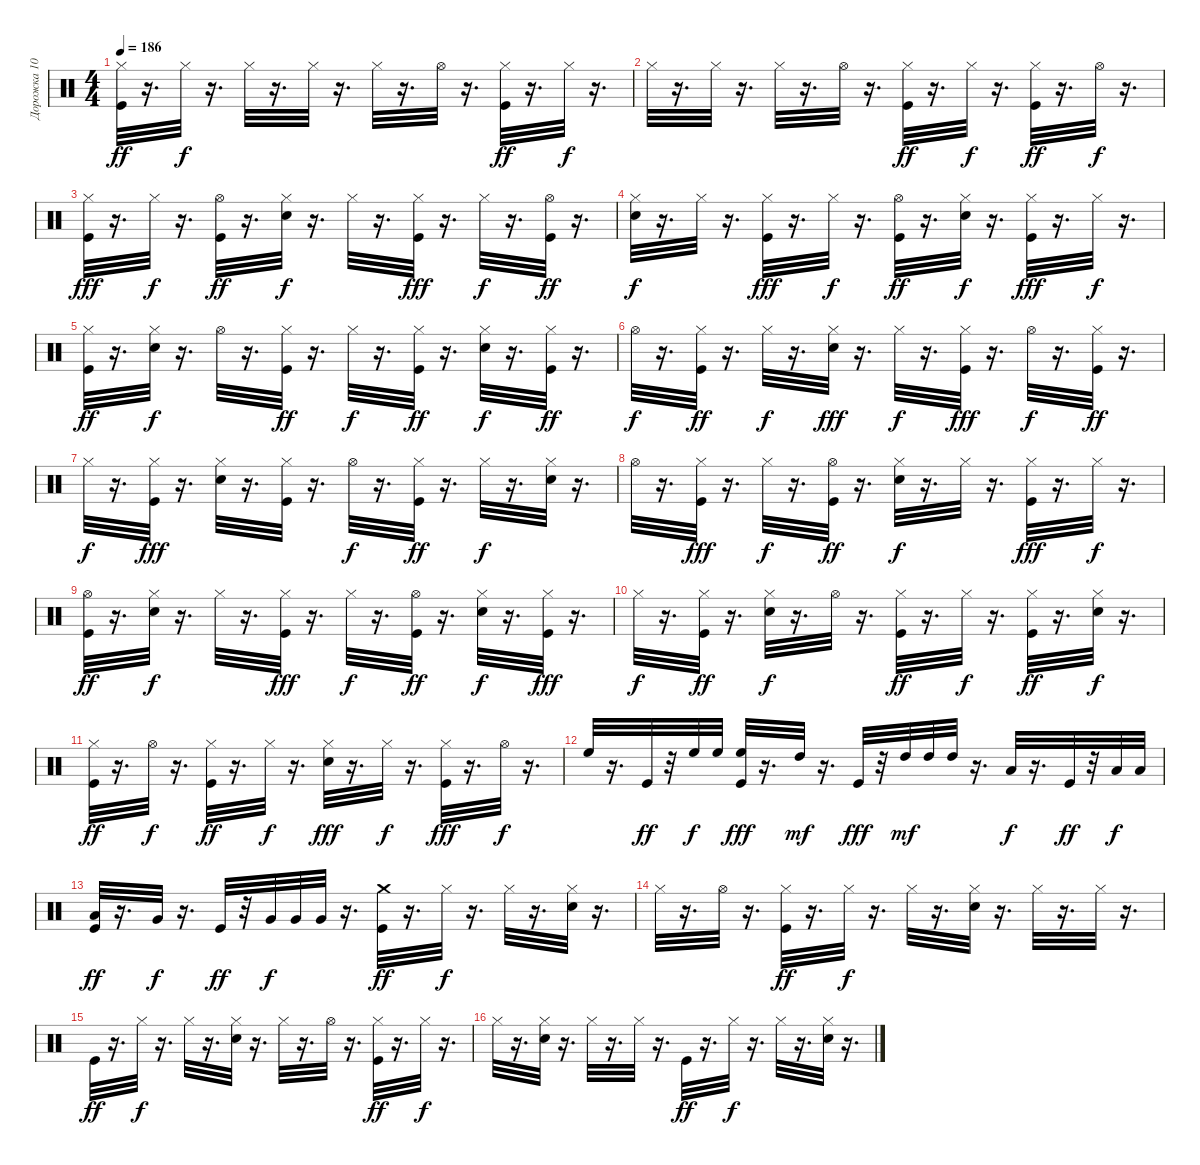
\track ("Дорожка 10" "Дорожка 10") {instrument percussion}
\staff {score}
\articulation defaults
\ts (4 4)
\tempo 186
\clef neutral
\ks c
("Hi-Hat (closed)" "Kick (hit)").32{dy ff} r.16{d} "Hi-Hat (closed)".32{dy f} r.16{d} "Hi-Hat (closed)".32 r.16{d} "Hi-Hat (closed)".32 r.16{d} "Hi-Hat (closed)".32 r.16{d} "Hi-Hat (open)".32 r.16{d} ("Hi-Hat (closed)" "Kick (hit)").32{dy ff} r.16{d} "Hi-Hat (closed)".32{dy f} r.16{d} |
"Hi-Hat (closed)".32 r.16{d} "Hi-Hat (closed)".32 r.16{d} "Hi-Hat (closed)".32 r.16{d} "Hi-Hat (open)".32 r.16{d} ("Hi-Hat (closed)" "Kick (hit)").32{dy ff} r.16{d} "Hi-Hat (closed)".32{dy f} r.16{d} ("Kick (hit)" "Hi-Hat (closed)").32{dy ff} r.16{d} "Hi-Hat (open)".32{dy f} r.16{d} |
("Hi-Hat (closed)" "Kick (hit)").32{dy fff} r.16{d} "Hi-Hat (closed)".32{dy f} r.16{d} ("Kick (hit)" "Hi-Hat (open)").32{dy ff} r.16{d} ("Hi-Hat (closed)" "Electric Snare (hit)").32{dy f} r.16{d} "Hi-Hat (closed)".32 r.16{d} ("Hi-Hat (closed)" "Kick (hit)").32{dy fff} r.16{d} "Hi-Hat (closed)".32{dy f} r.16{d} ("Hi-Hat (open)" "Kick (hit)").32{dy ff} r.16{d} |
("Hi-Hat (closed)" "Electric Snare (hit)").32{dy f} r.16{d} "Hi-Hat (closed)".32 r.16{d} ("Kick (hit)" "Hi-Hat (closed)").32{dy fff} r.16{d} "Hi-Hat (closed)".32{dy f} r.16{d} ("Kick (hit)" "Hi-Hat (open)").32{dy ff} r.16{d} ("Electric Snare (hit)" "Hi-Hat (closed)").32{dy f} r.16{d} ("Kick (hit)" "Hi-Hat (closed)").32{dy fff} r.16{d} "Hi-Hat (closed)".32{dy f} r.16{d} |
("Kick (hit)" "Hi-Hat (closed)").32{dy ff} r.16{d} ("Hi-Hat (closed)" "Electric Snare (hit)").32{dy f} r.16{d} "Hi-Hat (open)".32 r.16{d} ("Hi-Hat (closed)" "Kick (hit)").32{dy ff} r.16{d} "Hi-Hat (closed)".32{dy f} r.16{d} ("Kick (hit)" "Hi-Hat (closed)").32{dy ff} r.16{d} ("Hi-Hat (closed)" "Electric Snare (hit)").32{dy f} r.16{d} ("Kick (hit)" "Hi-Hat (closed)").32{dy ff} r.16{d} |
"Hi-Hat (open)".32{dy f} r.16{d} ("Kick (hit)" "Hi-Hat (closed)").32{dy ff} r.16{d} "Hi-Hat (closed)".32{dy f} r.16{d} ("Hi-Hat (closed)" "Electric Snare (hit)").32{dy fff} r.16{d} "Hi-Hat (closed)".32{dy f} r.16{d} ("Kick (hit)" "Hi-Hat (closed)").32{dy fff} r.16{d} "Hi-Hat (open)".32{dy f} r.16{d} ("Kick (hit)" "Hi-Hat (closed)").32{dy ff} r.16{d} |
"Hi-Hat (closed)".32{dy f} r.16{d} ("Hi-Hat (closed)" "Kick (hit)").32{dy fff} r.16{d} ("Electric Snare (hit)" "Hi-Hat (closed)").32 r.16{d} ("Kick (hit)" "Hi-Hat (closed)").32 r.16{d} "Hi-Hat (open)".32{dy f} r.16{d} ("Kick (hit)" "Hi-Hat (closed)").32{dy ff} r.16{d} "Hi-Hat (closed)".32{dy f} r.16{d} ("Electric Snare (hit)" "Hi-Hat (closed)").32 r.16{d} |
"Hi-Hat (open)".32 r.16{d} ("Hi-Hat (closed)" "Kick (hit)").32{dy fff} r.16{d} "Hi-Hat (closed)".32{dy f} r.16{d} ("Kick (hit)" "Hi-Hat (open)").32{dy ff} r.16{d} ("Hi-Hat (closed)" "Electric Snare (hit)").32{dy f} r.16{d} "Hi-Hat (closed)".32 r.16{d} ("Hi-Hat (closed)" "Kick (hit)").32{dy fff} r.16{d} "Hi-Hat (closed)".32{dy f} r.16{d} |
("Hi-Hat (open)" "Kick (hit)").32{dy ff} r.16{d} ("Electric Snare (hit)" "Hi-Hat (closed)").32{dy f} r.16{d} "Hi-Hat (closed)".32 r.16{d} ("Hi-Hat (closed)" "Kick (hit)").32{dy fff} r.16{d} "Hi-Hat (closed)".32{dy f} r.16{d} ("Kick (hit)" "Hi-Hat (open)").32{dy ff} r.16{d} ("Hi-Hat (closed)" "Electric Snare (hit)").32{dy f} r.16{d} ("Kick (hit)" "Hi-Hat (closed)").32{dy fff} r.16{d} |
"Hi-Hat (closed)".32{dy f} r.16{d} ("Kick (hit)" "Hi-Hat (closed)").32{dy ff} r.16{d} ("Electric Snare (hit)" "Hi-Hat (closed)").32{dy f} r.16{d} "Hi-Hat (open)".32 r.16{d} ("Hi-Hat (closed)" "Kick (hit)").32{dy ff} r.16{d} "Hi-Hat (closed)".32{dy f} r.16{d} ("Kick (hit)" "Hi-Hat (closed)").32{dy ff} r.16{d} ("Electric Snare (hit)" "Hi-Hat (closed)").32{dy f} r.16{d} |
("Hi-Hat (closed)" "Kick (hit)").32{dy ff} r.16{d} "Hi-Hat (open)".32{dy f} r.16{d} ("Kick (hit)" "Hi-Hat (closed)").32{dy ff} r.16{d} "Hi-Hat (closed)".32{dy f} r.16{d} ("Electric Snare (hit)" "Hi-Hat (closed)").32{dy fff} r.16{d} "Hi-Hat (closed)".32{dy f} r.16{d} ("Hi-Hat (closed)" "Kick (hit)").32{dy fff} r.16{d} "Hi-Hat (open)".32{dy f} r.16{d} |
"High Floor Tom (hit)".32 r.16{d} "Kick (hit)".32{dy ff} r.32 "High Floor Tom (hit)".32{dy f} "High Floor Tom (hit)".32 ("Kick (hit)" "High Floor Tom (hit)").32{dy fff} r.16{d} "High Tom (hit)".32{dy mf} r.16{d} "Kick (hit)".32{dy fff} r.32 "High Tom (hit)".32{dy mf} "High Tom (hit)".32 "High Tom (hit)".32 r.16{d} "Low Tom (hit)".32{dy f} r.16{d} "Kick (hit)".32{dy ff} r.32 "Low Tom (hit)".32{dy f} "Low Tom (hit)".32 |
("Low Tom (hit)" "Kick (hit)").32{dy ff} r.16{d} "Very Low Tom (hit)".32{dy f} r.16{d} "Kick (hit)".32{dy ff} r.32 "Very Low Tom (hit)".32{dy f} "Very Low Tom (hit)".32 "Very Low Tom (hit)".32 r.16{d} ("Kick (hit)" "Crash medium (hit)").32{dy ff} r.16{d} "Hi-Hat (closed)".32{dy f} r.16{d} "Hi-Hat (closed)".32 r.16{d} ("Electric Snare (hit)" "Hi-Hat (closed)").32 r.16{d} |
"Hi-Hat (closed)".32 r.16{d} "Hi-Hat (open)".32 r.16{d} ("Kick (hit)" "Hi-Hat (closed)").32{dy ff} r.16{d} "Hi-Hat (closed)".32{dy f} r.16{d} "Hi-Hat (closed)".32 r.16{d} ("Electric Snare (hit)" "Hi-Hat (closed)").32 r.16{d} "Hi-Hat (closed)".32 r.16{d} "Hi-Hat (closed)".32 r.16{d} |
"Kick (hit)".32{dy ff} r.16{d} "Hi-Hat (closed)".32{dy f} r.16{d} "Hi-Hat (closed)".32 r.16{d} ("Hi-Hat (closed)" "Electric Snare (hit)").32 r.16{d} "Hi-Hat (closed)".32 r.16{d} "Hi-Hat (open)".32 r.16{d} ("Hi-Hat (closed)" "Kick (hit)").32{dy ff} r.16{d} "Hi-Hat (closed)".32{dy f} r.16{d} |
"Hi-Hat (closed)".32 r.16{d} ("Electric Snare (hit)" "Hi-Hat (closed)").32 r.16{d} "Hi-Hat (closed)".32 r.16{d} "Hi-Hat (closed)".32 r.16{d} "Kick (hit)".32{dy ff} r.16{d} "Hi-Hat (closed)".32{dy f} r.16{d} "Hi-Hat (closed)".32 r.16{d} ("Hi-Hat (closed)" "Electric Snare (hit)").32 r.16{d}
